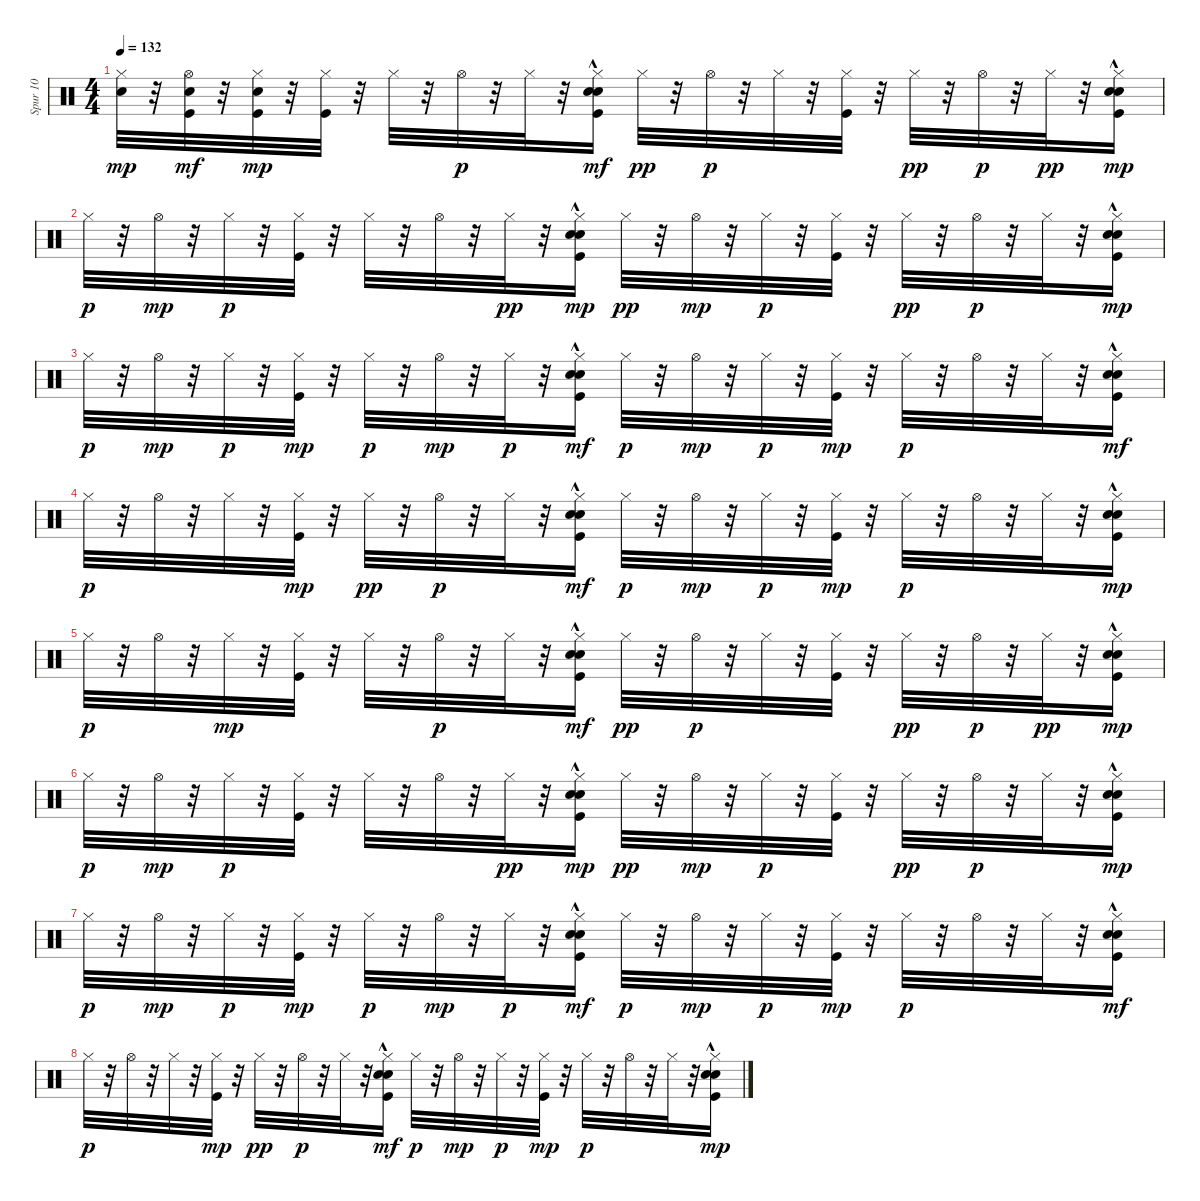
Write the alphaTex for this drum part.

\track ("Spur 10" "Spur 10") {instrument percussion}
\staff {score}
\articulation defaults
\ts (4 4)
\tempo 132
\clef neutral
\ks c
("Hi-Hat (closed)" "Snare (hit) 2").32{dy mp} r.32 ("Kick (hit)" "Hi-Hat (open)" "Snare (hit) 2").32{dy mf} r.32 ("Kick (hit)" "Hi-Hat (closed)" "Snare (hit) 2").32{dy mp} r.32 ("Kick (hit)" "Hi-Hat (closed)").32 r.32 "Hi-Hat (closed)".32 r.32 "Hi-Hat (open)".32{dy p} r.32 "Hi-Hat (closed)".32 r.32 ("Hi-Hat (closed)" "Snare (hit) 2" "Kick (hit)" "Hand Clap (hit)"{hac}).16{dy mf} "Hi-Hat (closed)".32{dy pp} r.32 "Hi-Hat (open)".32{dy p} r.32 "Hi-Hat (closed)".32 r.32 ("Hi-Hat (closed)" "Kick (hit)").32 r.32 "Hi-Hat (closed)".32{dy pp} r.32 "Hi-Hat (open)".32{dy p} r.32 "Hi-Hat (closed)".32{dy pp} r.32 ("Hi-Hat (closed)" "Kick (hit)" "Snare (hit) 2" "Hand Clap (hit)"{hac}).16{dy mp} |
"Hi-Hat (closed)".32{dy p} r.32 "Hi-Hat (open)".32{dy mp} r.32 "Hi-Hat (closed)".32{dy p} r.32 ("Hi-Hat (closed)" "Kick (hit)").32 r.32 "Hi-Hat (closed)".32 r.32 "Hi-Hat (open)".32 r.32 "Hi-Hat (closed)".32{dy pp} r.32 ("Hi-Hat (closed)" "Kick (hit)" "Snare (hit) 2" "Hand Clap (hit)"{hac}).16{dy mp} "Hi-Hat (closed)".32{dy pp} r.32 "Hi-Hat (open)".32{dy mp} r.32 "Hi-Hat (closed)".32{dy p} r.32 ("Hi-Hat (closed)" "Kick (hit)").32 r.32 "Hi-Hat (closed)".32{dy pp} r.32 "Hi-Hat (open)".32{dy p} r.32 "Hi-Hat (closed)".32 r.32 ("Hi-Hat (closed)" "Kick (hit)" "Snare (hit) 2" "Hand Clap (hit)"{hac}).16{dy mp} |
"Hi-Hat (closed)".32{dy p} r.32 "Hi-Hat (open)".32{dy mp} r.32 "Hi-Hat (closed)".32{dy p} r.32 ("Hi-Hat (closed)" "Kick (hit)").32{dy mp} r.32 "Hi-Hat (closed)".32{dy p} r.32 "Hi-Hat (open)".32{dy mp} r.32 "Hi-Hat (closed)".32{dy p} r.32 ("Hi-Hat (closed)" "Snare (hit) 2" "Kick (hit)" "Hand Clap (hit)"{hac}).16{dy mf} "Hi-Hat (closed)".32{dy p} r.32 "Hi-Hat (open)".32{dy mp} r.32 "Hi-Hat (closed)".32{dy p} r.32 ("Hi-Hat (closed)" "Kick (hit)").32{dy mp} r.32 "Hi-Hat (closed)".32{dy p} r.32 "Hi-Hat (open)".32 r.32 "Hi-Hat (closed)".32 r.32 ("Hi-Hat (closed)" "Snare (hit) 2" "Kick (hit)" "Hand Clap (hit)"{hac}).16{dy mf} |
"Hi-Hat (closed)".32{dy p} r.32 "Hi-Hat (open)".32 r.32 "Hi-Hat (closed)".32 r.32 ("Hi-Hat (closed)" "Kick (hit)").32{dy mp} r.32 "Hi-Hat (closed)".32{dy pp} r.32 "Hi-Hat (open)".32{dy p} r.32 "Hi-Hat (closed)".32 r.32 ("Hi-Hat (closed)" "Snare (hit) 2" "Kick (hit)" "Hand Clap (hit)"{hac}).16{dy mf} "Hi-Hat (closed)".32{dy p} r.32 "Hi-Hat (open)".32{dy mp} r.32 "Hi-Hat (closed)".32{dy p} r.32 ("Hi-Hat (closed)" "Kick (hit)").32{dy mp} r.32 "Hi-Hat (closed)".32{dy p} r.32 "Hi-Hat (open)".32 r.32 "Hi-Hat (closed)".32 r.32 ("Hi-Hat (closed)" "Kick (hit)" "Snare (hit) 2" "Hand Clap (hit)"{hac}).16{dy mp} |
"Hi-Hat (closed)".32{dy p} r.32 "Hi-Hat (open)".32 r.32 "Hi-Hat (closed)".32{dy mp} r.32 ("Kick (hit)" "Hi-Hat (closed)").32 r.32 "Hi-Hat (closed)".32 r.32 "Hi-Hat (open)".32{dy p} r.32 "Hi-Hat (closed)".32 r.32 ("Hi-Hat (closed)" "Snare (hit) 2" "Kick (hit)" "Hand Clap (hit)"{hac}).16{dy mf} "Hi-Hat (closed)".32{dy pp} r.32 "Hi-Hat (open)".32{dy p} r.32 "Hi-Hat (closed)".32 r.32 ("Hi-Hat (closed)" "Kick (hit)").32 r.32 "Hi-Hat (closed)".32{dy pp} r.32 "Hi-Hat (open)".32{dy p} r.32 "Hi-Hat (closed)".32{dy pp} r.32 ("Hi-Hat (closed)" "Kick (hit)" "Snare (hit) 2" "Hand Clap (hit)"{hac}).16{dy mp} |
"Hi-Hat (closed)".32{dy p} r.32 "Hi-Hat (open)".32{dy mp} r.32 "Hi-Hat (closed)".32{dy p} r.32 ("Hi-Hat (closed)" "Kick (hit)").32 r.32 "Hi-Hat (closed)".32 r.32 "Hi-Hat (open)".32 r.32 "Hi-Hat (closed)".32{dy pp} r.32 ("Hi-Hat (closed)" "Kick (hit)" "Snare (hit) 2" "Hand Clap (hit)"{hac}).16{dy mp} "Hi-Hat (closed)".32{dy pp} r.32 "Hi-Hat (open)".32{dy mp} r.32 "Hi-Hat (closed)".32{dy p} r.32 ("Hi-Hat (closed)" "Kick (hit)").32 r.32 "Hi-Hat (closed)".32{dy pp} r.32 "Hi-Hat (open)".32{dy p} r.32 "Hi-Hat (closed)".32 r.32 ("Hi-Hat (closed)" "Kick (hit)" "Snare (hit) 2" "Hand Clap (hit)"{hac}).16{dy mp} |
"Hi-Hat (closed)".32{dy p} r.32 "Hi-Hat (open)".32{dy mp} r.32 "Hi-Hat (closed)".32{dy p} r.32 ("Hi-Hat (closed)" "Kick (hit)").32{dy mp} r.32 "Hi-Hat (closed)".32{dy p} r.32 "Hi-Hat (open)".32{dy mp} r.32 "Hi-Hat (closed)".32{dy p} r.32 ("Hi-Hat (closed)" "Snare (hit) 2" "Kick (hit)" "Hand Clap (hit)"{hac}).16{dy mf} "Hi-Hat (closed)".32{dy p} r.32 "Hi-Hat (open)".32{dy mp} r.32 "Hi-Hat (closed)".32{dy p} r.32 ("Hi-Hat (closed)" "Kick (hit)").32{dy mp} r.32 "Hi-Hat (closed)".32{dy p} r.32 "Hi-Hat (open)".32 r.32 "Hi-Hat (closed)".32 r.32 ("Hi-Hat (closed)" "Snare (hit) 2" "Kick (hit)" "Hand Clap (hit)"{hac}).16{dy mf} |
"Hi-Hat (closed)".32{dy p} r.32 "Hi-Hat (open)".32 r.32 "Hi-Hat (closed)".32 r.32 ("Hi-Hat (closed)" "Kick (hit)").32{dy mp} r.32 "Hi-Hat (closed)".32{dy pp} r.32 "Hi-Hat (open)".32{dy p} r.32 "Hi-Hat (closed)".32 r.32 ("Hi-Hat (closed)" "Snare (hit) 2" "Kick (hit)" "Hand Clap (hit)"{hac}).16{dy mf} "Hi-Hat (closed)".32{dy p} r.32 "Hi-Hat (open)".32{dy mp} r.32 "Hi-Hat (closed)".32{dy p} r.32 ("Hi-Hat (closed)" "Kick (hit)").32{dy mp} r.32 "Hi-Hat (closed)".32{dy p} r.32 "Hi-Hat (open)".32 r.32 "Hi-Hat (closed)".32 r.32 ("Hi-Hat (closed)" "Kick (hit)" "Snare (hit) 2" "Hand Clap (hit)"{hac}).16{dy mp}
